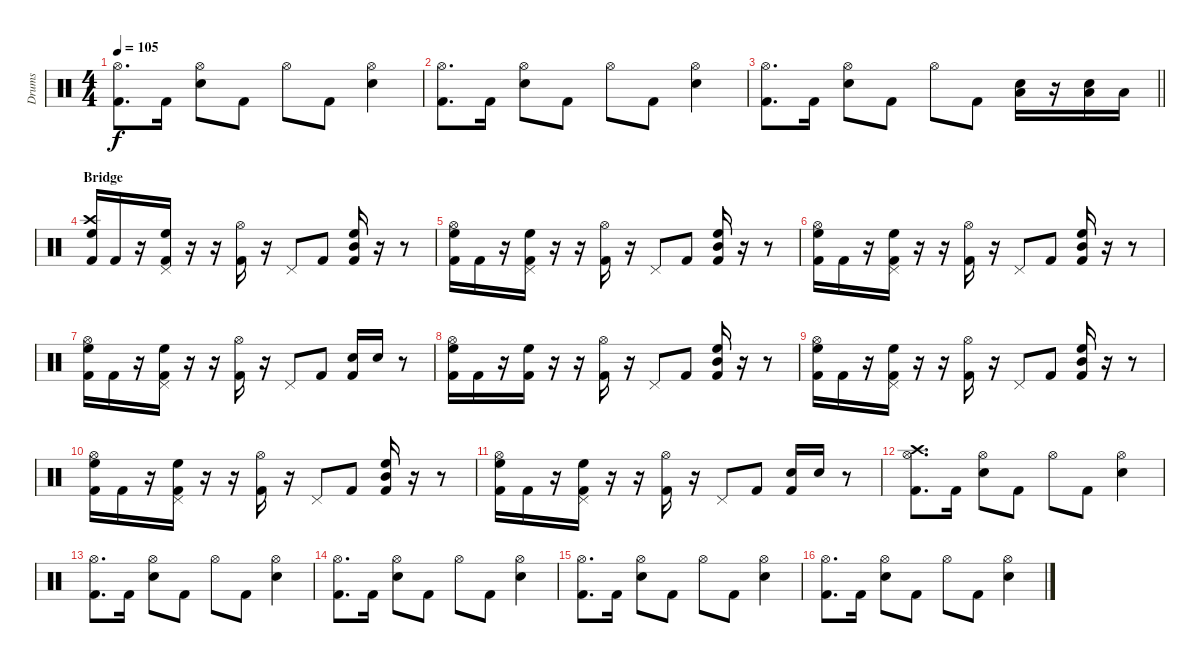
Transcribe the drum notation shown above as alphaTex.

\track ("Drums" "Drums") {instrument percussion}
\staff {score}
\articulation defaults
\ts (4 4)
\tempo 105
\clef neutral
\ks aminor
("Hi-Hat (open)" "Kick (hit) 2").8{d dy f} "Kick (hit) 2".16 ("Snare (hit) 2" "Hi-Hat (open)").8 "Kick (hit) 2".8 "Hi-Hat (open)".8 "Kick (hit) 2".8 ("Snare (hit) 2" "Hi-Hat (open)").4 |
("Hi-Hat (open)" "Kick (hit) 2").8{d} "Kick (hit) 2".16 ("Snare (hit) 2" "Hi-Hat (open)").8 "Kick (hit) 2".8 "Hi-Hat (open)".8 "Kick (hit) 2".8 ("Snare (hit) 2" "Hi-Hat (open)").4 |
\barLineRight lightlight
("Hi-Hat (open)" "Kick (hit) 2").8{d} "Kick (hit) 2".16 ("Snare (hit) 2" "Hi-Hat (open)").8 "Kick (hit) 2".8 "Hi-Hat (open)".8 "Kick (hit) 2".8 ("Snare (hit) 2" "Low Floor Tom (hit)").16 r.16 ("Snare (hit) 2" "Low Floor Tom (hit)").16 "Low Floor Tom (hit)".16 |
\section ("" "Bridge")
("Crash high (hit)" "High Floor Tom (hit)" "Kick (hit) 2").16 "Kick (hit) 2".16 r.16 ("High Floor Tom (hit)" "Pedal Hi-Hat (hit)" "Kick (hit) 2").16 r.16 r.16 ("Hi-Hat (open)" "Kick (hit) 2").16 r.16 "Pedal Hi-Hat (hit)".8 "Kick (hit) 2".8 ("High Floor Tom (hit)" "Mid Tom (hit)" "Kick (hit) 2").16 r.16 r.8 |
("High Floor Tom (hit)" "Hi-Hat (open)" "Kick (hit) 2").16 "Kick (hit) 2".16 r.16 ("High Floor Tom (hit)" "Pedal Hi-Hat (hit)" "Kick (hit) 2").16 r.16 r.16 ("Hi-Hat (open)" "Kick (hit) 2").16 r.16 "Pedal Hi-Hat (hit)".8 "Kick (hit) 2".8 ("High Floor Tom (hit)" "Mid Tom (hit)" "Kick (hit) 2").16 r.16 r.8 |
("High Floor Tom (hit)" "Hi-Hat (open)" "Kick (hit) 2").16 "Kick (hit) 2".16 r.16 ("High Floor Tom (hit)" "Pedal Hi-Hat (hit)" "Kick (hit) 2").16 r.16 r.16 ("Hi-Hat (open)" "Kick (hit) 2").16 r.16 "Pedal Hi-Hat (hit)".8 "Kick (hit) 2".8 ("High Floor Tom (hit)" "Mid Tom (hit)" "Kick (hit) 2").16 r.16 r.8 |
("High Floor Tom (hit)" "Hi-Hat (open)" "Kick (hit) 2").16 "Kick (hit) 2".16 r.16 ("High Floor Tom (hit)" "Pedal Hi-Hat (hit)" "Kick (hit) 2").16 r.16 r.16 ("Hi-Hat (open)" "Kick (hit) 2").16 r.16 "Pedal Hi-Hat (hit)".8 "Kick (hit) 2".8 ("Snare (hit) 2" "Kick (hit) 2").16 "Snare (hit) 2".16 r.8 |
("High Floor Tom (hit)" "Hi-Hat (open)" "Kick (hit) 2").16 "Kick (hit) 2".16 r.16 ("High Floor Tom (hit)" "Kick (hit) 2").16 r.16 r.16 ("Hi-Hat (open)" "Kick (hit) 2").16 r.16 "Pedal Hi-Hat (hit)".8 "Kick (hit) 2".8 ("High Floor Tom (hit)" "Mid Tom (hit)" "Kick (hit) 2").16 r.16 r.8 |
("High Floor Tom (hit)" "Hi-Hat (open)" "Kick (hit) 2").16 "Kick (hit) 2".16 r.16 ("High Floor Tom (hit)" "Pedal Hi-Hat (hit)" "Kick (hit) 2").16 r.16 r.16 ("Hi-Hat (open)" "Kick (hit) 2").16 r.16 "Pedal Hi-Hat (hit)".8 "Kick (hit) 2".8 ("High Floor Tom (hit)" "Mid Tom (hit)" "Kick (hit) 2").16 r.16 r.8 |
("High Floor Tom (hit)" "Hi-Hat (open)" "Kick (hit) 2").16 "Kick (hit) 2".16 r.16 ("High Floor Tom (hit)" "Pedal Hi-Hat (hit)" "Kick (hit) 2").16 r.16 r.16 ("Hi-Hat (open)" "Kick (hit) 2").16 r.16 "Pedal Hi-Hat (hit)".8 "Kick (hit) 2".8 ("High Floor Tom (hit)" "Mid Tom (hit)" "Kick (hit) 2").16 r.16 r.8 |
("High Floor Tom (hit)" "Hi-Hat (open)" "Kick (hit) 2").16 "Kick (hit) 2".16 r.16 ("High Floor Tom (hit)" "Pedal Hi-Hat (hit)" "Kick (hit) 2").16 r.16 r.16 ("Hi-Hat (open)" "Kick (hit) 2").16 r.16 "Pedal Hi-Hat (hit)".8 "Kick (hit) 2".8 ("Snare (hit) 2" "Kick (hit) 2").16 "Snare (hit) 2".16 r.8 |
("Crash high (hit)" "Hi-Hat (open)" "Kick (hit) 2").8{d volume 10} "Kick (hit) 2".16 ("Snare (hit) 2" "Hi-Hat (open)").8 "Kick (hit) 2".8 "Hi-Hat (open)".8 "Kick (hit) 2".8 ("Snare (hit) 2" "Hi-Hat (open)").4 |
("Hi-Hat (open)" "Kick (hit) 2").8{d} "Kick (hit) 2".16 ("Snare (hit) 2" "Hi-Hat (open)").8 "Kick (hit) 2".8 "Hi-Hat (open)".8 "Kick (hit) 2".8 ("Snare (hit) 2" "Hi-Hat (open)").4 |
("Hi-Hat (open)" "Kick (hit) 2").8{d} "Kick (hit) 2".16 ("Snare (hit) 2" "Hi-Hat (open)").8 "Kick (hit) 2".8 "Hi-Hat (open)".8 "Kick (hit) 2".8 ("Snare (hit) 2" "Hi-Hat (open)").4 |
("Hi-Hat (open)" "Kick (hit) 2").8{d} "Kick (hit) 2".16 ("Snare (hit) 2" "Hi-Hat (open)").8 "Kick (hit) 2".8 "Hi-Hat (open)".8 "Kick (hit) 2".8 ("Snare (hit) 2" "Hi-Hat (open)").4 |
("Hi-Hat (open)" "Kick (hit) 2").8{d} "Kick (hit) 2".16 ("Snare (hit) 2" "Hi-Hat (open)").8 "Kick (hit) 2".8 "Hi-Hat (open)".8 "Kick (hit) 2".8 ("Snare (hit) 2" "Hi-Hat (open)").4
